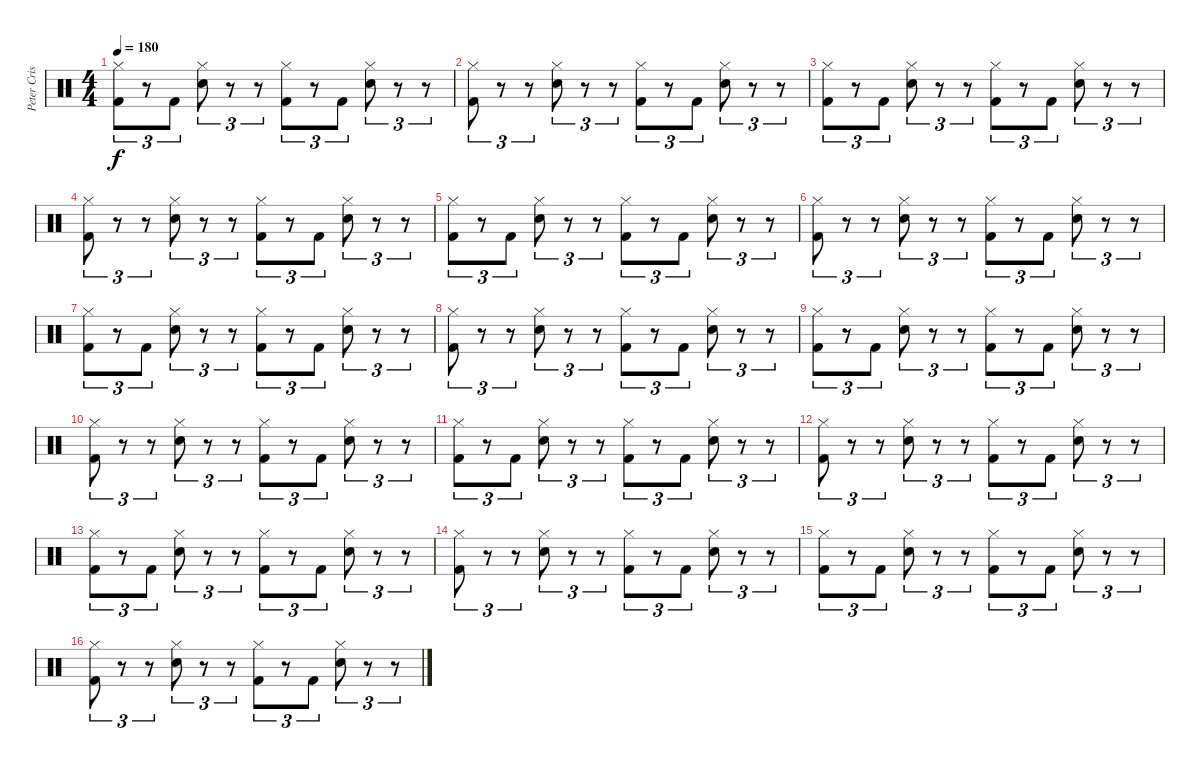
\track ("Peter Criss" "Peter Cris") {instrument percussion}
\staff {score}
\articulation defaults
\ts (4 4)
\tempo 180
\clef neutral
\ks c
("Hi-Hat (closed)" "Kick (hit) 2").8{tu (3 2) dy f} r.8{tu (3 2)} "Kick (hit) 2".8{tu (3 2)} ("Hi-Hat (closed)" "Electric Snare (hit)").8{tu (3 2)} r.8{tu (3 2)} r.8{tu (3 2)} ("Hi-Hat (closed)" "Kick (hit) 2").8{tu (3 2)} r.8{tu (3 2)} "Kick (hit) 2".8{tu (3 2)} ("Hi-Hat (closed)" "Electric Snare (hit)").8{tu (3 2)} r.8{tu (3 2)} r.8{tu (3 2)} |
("Hi-Hat (closed)" "Kick (hit) 2").8{tu (3 2)} r.8{tu (3 2)} r.8{tu (3 2)} ("Hi-Hat (closed)" "Electric Snare (hit)").8{tu (3 2)} r.8{tu (3 2)} r.8{tu (3 2)} ("Hi-Hat (closed)" "Kick (hit) 2").8{tu (3 2)} r.8{tu (3 2)} "Kick (hit) 2".8{tu (3 2)} ("Hi-Hat (closed)" "Electric Snare (hit)").8{tu (3 2)} r.8{tu (3 2)} r.8{tu (3 2)} |
("Hi-Hat (closed)" "Kick (hit) 2").8{tu (3 2)} r.8{tu (3 2)} "Kick (hit) 2".8{tu (3 2)} ("Hi-Hat (closed)" "Electric Snare (hit)").8{tu (3 2)} r.8{tu (3 2)} r.8{tu (3 2)} ("Hi-Hat (closed)" "Kick (hit) 2").8{tu (3 2)} r.8{tu (3 2)} "Kick (hit) 2".8{tu (3 2)} ("Hi-Hat (closed)" "Electric Snare (hit)").8{tu (3 2)} r.8{tu (3 2)} r.8{tu (3 2)} |
("Hi-Hat (closed)" "Kick (hit) 2").8{tu (3 2)} r.8{tu (3 2)} r.8{tu (3 2)} ("Hi-Hat (closed)" "Electric Snare (hit)").8{tu (3 2)} r.8{tu (3 2)} r.8{tu (3 2)} ("Hi-Hat (closed)" "Kick (hit) 2").8{tu (3 2)} r.8{tu (3 2)} "Kick (hit) 2".8{tu (3 2)} ("Hi-Hat (closed)" "Electric Snare (hit)").8{tu (3 2)} r.8{tu (3 2)} r.8{tu (3 2)} |
("Hi-Hat (closed)" "Kick (hit) 2").8{tu (3 2)} r.8{tu (3 2)} "Kick (hit) 2".8{tu (3 2)} ("Hi-Hat (closed)" "Electric Snare (hit)").8{tu (3 2)} r.8{tu (3 2)} r.8{tu (3 2)} ("Hi-Hat (closed)" "Kick (hit) 2").8{tu (3 2)} r.8{tu (3 2)} "Kick (hit) 2".8{tu (3 2)} ("Hi-Hat (closed)" "Electric Snare (hit)").8{tu (3 2)} r.8{tu (3 2)} r.8{tu (3 2)} |
("Hi-Hat (closed)" "Kick (hit) 2").8{tu (3 2)} r.8{tu (3 2)} r.8{tu (3 2)} ("Hi-Hat (closed)" "Electric Snare (hit)").8{tu (3 2)} r.8{tu (3 2)} r.8{tu (3 2)} ("Hi-Hat (closed)" "Kick (hit) 2").8{tu (3 2)} r.8{tu (3 2)} "Kick (hit) 2".8{tu (3 2)} ("Hi-Hat (closed)" "Electric Snare (hit)").8{tu (3 2)} r.8{tu (3 2)} r.8{tu (3 2)} |
("Hi-Hat (closed)" "Kick (hit) 2").8{tu (3 2)} r.8{tu (3 2)} "Kick (hit) 2".8{tu (3 2)} ("Hi-Hat (closed)" "Electric Snare (hit)").8{tu (3 2)} r.8{tu (3 2)} r.8{tu (3 2)} ("Hi-Hat (closed)" "Kick (hit) 2").8{tu (3 2)} r.8{tu (3 2)} "Kick (hit) 2".8{tu (3 2)} ("Hi-Hat (closed)" "Electric Snare (hit)").8{tu (3 2)} r.8{tu (3 2)} r.8{tu (3 2)} |
("Hi-Hat (closed)" "Kick (hit) 2").8{tu (3 2)} r.8{tu (3 2)} r.8{tu (3 2)} ("Hi-Hat (closed)" "Electric Snare (hit)").8{tu (3 2)} r.8{tu (3 2)} r.8{tu (3 2)} ("Hi-Hat (closed)" "Kick (hit) 2").8{tu (3 2)} r.8{tu (3 2)} "Kick (hit) 2".8{tu (3 2)} ("Hi-Hat (closed)" "Electric Snare (hit)").8{tu (3 2)} r.8{tu (3 2)} r.8{tu (3 2)} |
("Hi-Hat (closed)" "Kick (hit) 2").8{tu (3 2)} r.8{tu (3 2)} "Kick (hit) 2".8{tu (3 2)} ("Hi-Hat (closed)" "Electric Snare (hit)").8{tu (3 2)} r.8{tu (3 2)} r.8{tu (3 2)} ("Hi-Hat (closed)" "Kick (hit) 2").8{tu (3 2)} r.8{tu (3 2)} "Kick (hit) 2".8{tu (3 2)} ("Hi-Hat (closed)" "Electric Snare (hit)").8{tu (3 2)} r.8{tu (3 2)} r.8{tu (3 2)} |
("Hi-Hat (closed)" "Kick (hit) 2").8{tu (3 2)} r.8{tu (3 2)} r.8{tu (3 2)} ("Hi-Hat (closed)" "Electric Snare (hit)").8{tu (3 2)} r.8{tu (3 2)} r.8{tu (3 2)} ("Hi-Hat (closed)" "Kick (hit) 2").8{tu (3 2)} r.8{tu (3 2)} "Kick (hit) 2".8{tu (3 2)} ("Hi-Hat (closed)" "Electric Snare (hit)").8{tu (3 2)} r.8{tu (3 2)} r.8{tu (3 2)} |
("Hi-Hat (closed)" "Kick (hit) 2").8{tu (3 2)} r.8{tu (3 2)} "Kick (hit) 2".8{tu (3 2)} ("Hi-Hat (closed)" "Electric Snare (hit)").8{tu (3 2)} r.8{tu (3 2)} r.8{tu (3 2)} ("Hi-Hat (closed)" "Kick (hit) 2").8{tu (3 2)} r.8{tu (3 2)} "Kick (hit) 2".8{tu (3 2)} ("Hi-Hat (closed)" "Electric Snare (hit)").8{tu (3 2)} r.8{tu (3 2)} r.8{tu (3 2)} |
("Hi-Hat (closed)" "Kick (hit) 2").8{tu (3 2)} r.8{tu (3 2)} r.8{tu (3 2)} ("Hi-Hat (closed)" "Electric Snare (hit)").8{tu (3 2)} r.8{tu (3 2)} r.8{tu (3 2)} ("Hi-Hat (closed)" "Kick (hit) 2").8{tu (3 2)} r.8{tu (3 2)} "Kick (hit) 2".8{tu (3 2)} ("Hi-Hat (closed)" "Electric Snare (hit)").8{tu (3 2)} r.8{tu (3 2)} r.8{tu (3 2)} |
("Hi-Hat (closed)" "Kick (hit) 2").8{tu (3 2)} r.8{tu (3 2)} "Kick (hit) 2".8{tu (3 2)} ("Hi-Hat (closed)" "Electric Snare (hit)").8{tu (3 2)} r.8{tu (3 2)} r.8{tu (3 2)} ("Hi-Hat (closed)" "Kick (hit) 2").8{tu (3 2)} r.8{tu (3 2)} "Kick (hit) 2".8{tu (3 2)} ("Hi-Hat (closed)" "Electric Snare (hit)").8{tu (3 2)} r.8{tu (3 2)} r.8{tu (3 2)} |
("Hi-Hat (closed)" "Kick (hit) 2").8{tu (3 2)} r.8{tu (3 2)} r.8{tu (3 2)} ("Hi-Hat (closed)" "Electric Snare (hit)").8{tu (3 2)} r.8{tu (3 2)} r.8{tu (3 2)} ("Hi-Hat (closed)" "Kick (hit) 2").8{tu (3 2)} r.8{tu (3 2)} "Kick (hit) 2".8{tu (3 2)} ("Hi-Hat (closed)" "Electric Snare (hit)").8{tu (3 2)} r.8{tu (3 2)} r.8{tu (3 2)} |
("Hi-Hat (closed)" "Kick (hit) 2").8{tu (3 2)} r.8{tu (3 2)} "Kick (hit) 2".8{tu (3 2)} ("Hi-Hat (closed)" "Electric Snare (hit)").8{tu (3 2)} r.8{tu (3 2)} r.8{tu (3 2)} ("Hi-Hat (closed)" "Kick (hit) 2").8{tu (3 2)} r.8{tu (3 2)} "Kick (hit) 2".8{tu (3 2)} ("Hi-Hat (closed)" "Electric Snare (hit)").8{tu (3 2)} r.8{tu (3 2)} r.8{tu (3 2)} |
("Hi-Hat (closed)" "Kick (hit) 2").8{tu (3 2)} r.8{tu (3 2)} r.8{tu (3 2)} ("Hi-Hat (closed)" "Electric Snare (hit)").8{tu (3 2)} r.8{tu (3 2)} r.8{tu (3 2)} ("Hi-Hat (closed)" "Kick (hit) 2").8{tu (3 2)} r.8{tu (3 2)} "Kick (hit) 2".8{tu (3 2)} ("Hi-Hat (closed)" "Electric Snare (hit)").8{tu (3 2)} r.8{tu (3 2)} r.8{tu (3 2)}
